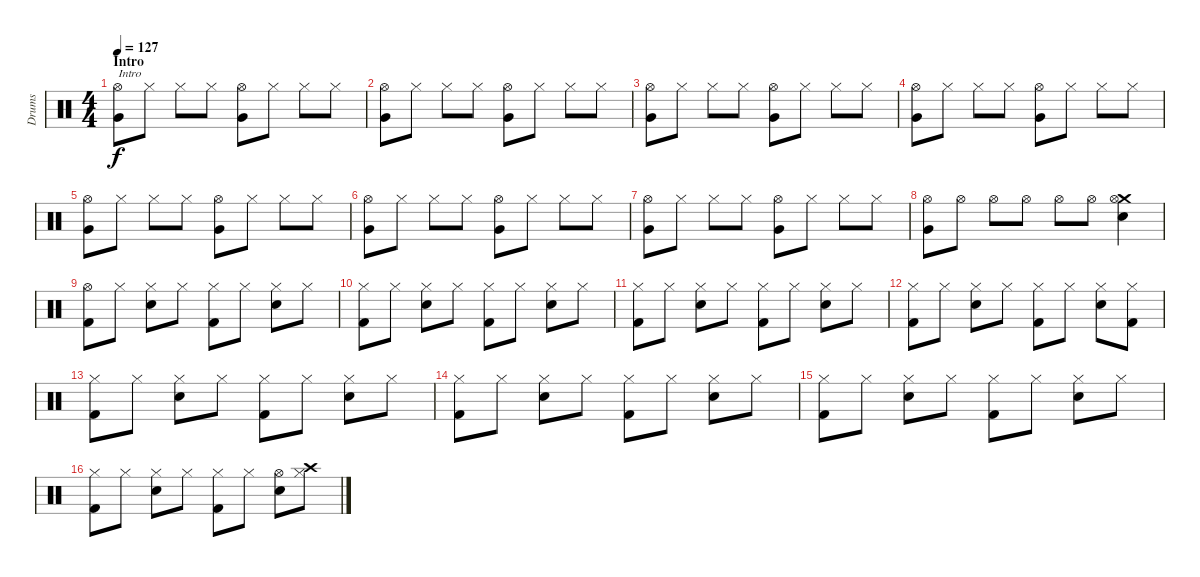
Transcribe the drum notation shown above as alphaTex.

\track ("Drums" "Drums") {instrument percussion}
\staff {score}
\articulation defaults
\ts (4 4)
\section ("" "Intro")
\tempo 127
\clef neutral
\ks c
("Hi-Hat (open)" "Very Low Tom (hit)").8{txt "Intro" dy f} "Hi-Hat (closed)".8 "Hi-Hat (closed)".8 "Hi-Hat (closed)".8 ("Hi-Hat (open)" "Very Low Tom (hit)").8 "Hi-Hat (closed)".8 "Hi-Hat (closed)".8 "Hi-Hat (closed)".8 |
("Hi-Hat (open)" "Very Low Tom (hit)").8 "Hi-Hat (closed)".8 "Hi-Hat (closed)".8 "Hi-Hat (closed)".8 ("Hi-Hat (open)" "Very Low Tom (hit)").8 "Hi-Hat (closed)".8 "Hi-Hat (closed)".8 "Hi-Hat (closed)".8 |
("Hi-Hat (open)" "Very Low Tom (hit)").8 "Hi-Hat (closed)".8 "Hi-Hat (closed)".8 "Hi-Hat (closed)".8 ("Hi-Hat (open)" "Very Low Tom (hit)").8 "Hi-Hat (closed)".8 "Hi-Hat (closed)".8 "Hi-Hat (closed)".8 |
("Hi-Hat (open)" "Very Low Tom (hit)").8 "Hi-Hat (closed)".8 "Hi-Hat (closed)".8 "Hi-Hat (closed)".8 ("Hi-Hat (open)" "Very Low Tom (hit)").8 "Hi-Hat (closed)".8 "Hi-Hat (closed)".8 "Hi-Hat (closed)".8 |
("Hi-Hat (open)" "Very Low Tom (hit)").8 "Hi-Hat (closed)".8 "Hi-Hat (closed)".8 "Hi-Hat (closed)".8 ("Hi-Hat (open)" "Very Low Tom (hit)").8 "Hi-Hat (closed)".8 "Hi-Hat (closed)".8 "Hi-Hat (closed)".8 |
("Hi-Hat (open)" "Very Low Tom (hit)").8 "Hi-Hat (closed)".8 "Hi-Hat (closed)".8 "Hi-Hat (closed)".8 ("Hi-Hat (open)" "Very Low Tom (hit)").8 "Hi-Hat (closed)".8 "Hi-Hat (closed)".8 "Hi-Hat (closed)".8 |
("Hi-Hat (open)" "Very Low Tom (hit)").8 "Hi-Hat (closed)".8 "Hi-Hat (closed)".8 "Hi-Hat (closed)".8 ("Hi-Hat (open)" "Very Low Tom (hit)").8 "Hi-Hat (closed)".8 "Hi-Hat (closed)".8 "Hi-Hat (closed)".8 |
("Hi-Hat (open)" "Very Low Tom (hit)").8 "Hi-Hat (open)".8 "Hi-Hat (open)".8 "Hi-Hat (open)".8 "Hi-Hat (open)".8 "Hi-Hat (open)".8 ("Crash medium (hit)" "Hi-Hat (open)" "Snare (hit) 2").4 |
("Hi-Hat (open)" "Kick (hit) 2").8 "Hi-Hat (closed)".8 ("Hi-Hat (closed)" "Snare (hit) 2").8 "Hi-Hat (closed)".8 ("Hi-Hat (closed)" "Kick (hit) 2").8 "Hi-Hat (closed)".8 ("Hi-Hat (closed)" "Snare (hit) 2").8 "Hi-Hat (closed)".8 |
("Hi-Hat (closed)" "Kick (hit) 2").8 "Hi-Hat (closed)".8 ("Hi-Hat (closed)" "Snare (hit) 2").8 "Hi-Hat (closed)".8 ("Hi-Hat (closed)" "Kick (hit) 2").8 "Hi-Hat (closed)".8 ("Hi-Hat (closed)" "Snare (hit) 2").8 "Hi-Hat (closed)".8 |
("Hi-Hat (closed)" "Kick (hit) 2").8 "Hi-Hat (closed)".8 ("Hi-Hat (closed)" "Snare (hit) 2").8 "Hi-Hat (closed)".8 ("Hi-Hat (closed)" "Kick (hit) 2").8 "Hi-Hat (closed)".8 ("Hi-Hat (closed)" "Snare (hit) 2").8 "Hi-Hat (closed)".8 |
("Hi-Hat (closed)" "Kick (hit) 2").8 "Hi-Hat (closed)".8 ("Hi-Hat (closed)" "Snare (hit) 2").8 "Hi-Hat (closed)".8 ("Hi-Hat (closed)" "Kick (hit) 2").8 "Hi-Hat (closed)".8 ("Hi-Hat (closed)" "Snare (hit) 2").8 ("Hi-Hat (closed)" "Kick (hit) 2").8 |
("Hi-Hat (closed)" "Kick (hit) 2").8 "Hi-Hat (closed)".8 ("Hi-Hat (closed)" "Snare (hit) 2").8 "Hi-Hat (closed)".8 ("Hi-Hat (closed)" "Kick (hit) 2").8 "Hi-Hat (closed)".8 ("Hi-Hat (closed)" "Snare (hit) 2").8 "Hi-Hat (closed)".8 |
("Hi-Hat (closed)" "Kick (hit) 2").8 "Hi-Hat (closed)".8 ("Hi-Hat (closed)" "Snare (hit) 2").8 "Hi-Hat (closed)".8 ("Hi-Hat (closed)" "Kick (hit) 2").8 "Hi-Hat (closed)".8 ("Hi-Hat (closed)" "Snare (hit) 2").8 "Hi-Hat (closed)".8 |
("Hi-Hat (closed)" "Kick (hit) 2").8 "Hi-Hat (closed)".8 ("Hi-Hat (closed)" "Snare (hit) 2").8 "Hi-Hat (closed)".8 ("Hi-Hat (closed)" "Kick (hit) 2").8 "Hi-Hat (closed)".8 ("Hi-Hat (closed)" "Snare (hit) 2").8 "Hi-Hat (closed)".8 |
("Hi-Hat (closed)" "Kick (hit) 2").8 "Hi-Hat (closed)".8 ("Hi-Hat (closed)" "Snare (hit) 2").8 "Hi-Hat (closed)".8 ("Hi-Hat (closed)" "Kick (hit) 2").8 "Hi-Hat (closed)".8 ("Hi-Hat (open)" "Snare (hit) 2").8 ("Crash high (hit)" "Hi-Hat (closed)").8
